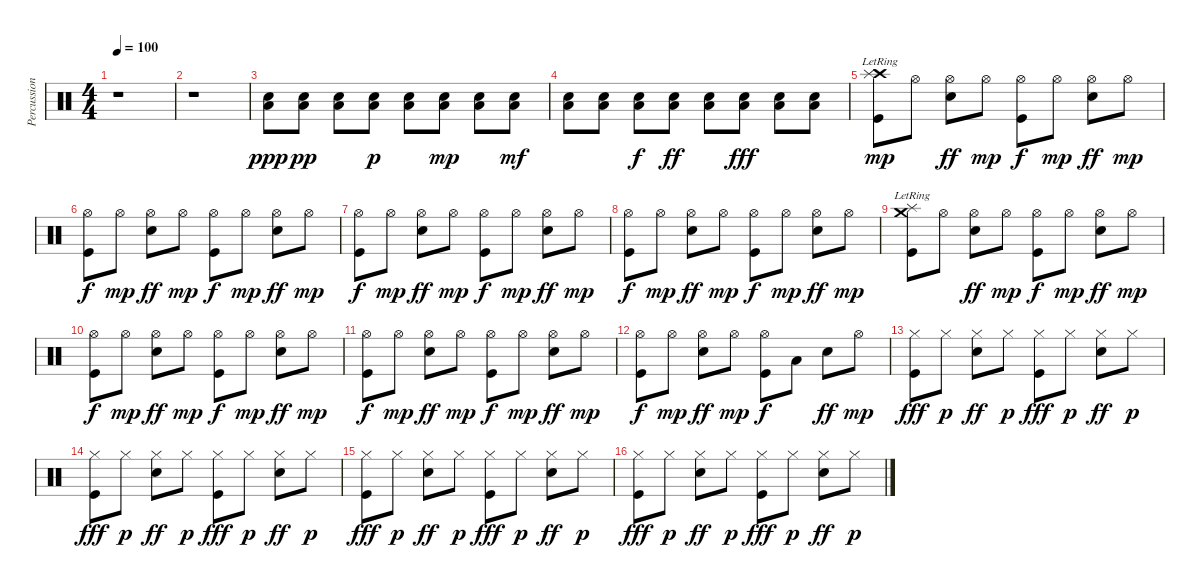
\track ("Percussion" "Percussion") {instrument percussion}
\staff {score}
\articulation defaults
\ts (4 4)
\tempo 100
\clef neutral
\ks c
r.1{dy ppp} |
r.1 |
("Low Floor Tom (hit)" "Electric Snare (hit)").8 ("Low Floor Tom (hit)" "Electric Snare (hit)").8{dy pp} ("Low Floor Tom (hit)" "Electric Snare (hit)").8 ("Low Floor Tom (hit)" "Electric Snare (hit)").8{dy p} ("Low Floor Tom (hit)" "Electric Snare (hit)").8 ("Low Floor Tom (hit)" "Electric Snare (hit)").8{dy mp} ("Low Floor Tom (hit)" "Electric Snare (hit)").8 ("Low Floor Tom (hit)" "Electric Snare (hit)").8{dy mf} |
("Low Floor Tom (hit)" "Electric Snare (hit)").8 ("Low Floor Tom (hit)" "Electric Snare (hit)").8 ("Low Floor Tom (hit)" "Electric Snare (hit)").8{dy f} ("Low Floor Tom (hit)" "Electric Snare (hit)").8{dy ff} ("Low Floor Tom (hit)" "Electric Snare (hit)").8 ("Low Floor Tom (hit)" "Electric Snare (hit)").8{dy fff} ("Low Floor Tom (hit)" "Electric Snare (hit)").8 ("Low Floor Tom (hit)" "Electric Snare (hit)").8 |
("Crash high (hit)"{lr} "Splash (hit)"{lr} "Kick (hit)").8{dy mp} "Hi-Hat (open)".8 ("Hi-Hat (open)" "Electric Snare (hit)").8{dy ff} "Hi-Hat (open)".8{dy mp} ("Hi-Hat (open)" "Kick (hit)").8{dy f} "Hi-Hat (open)".8{dy mp} ("Hi-Hat (open)" "Electric Snare (hit)").8{dy ff} "Hi-Hat (open)".8{dy mp} |
("Hi-Hat (open)" "Kick (hit)").8{dy f} "Hi-Hat (open)".8{dy mp} ("Hi-Hat (open)" "Electric Snare (hit)").8{dy ff} "Hi-Hat (open)".8{dy mp} ("Hi-Hat (open)" "Kick (hit)").8{dy f} "Hi-Hat (open)".8{dy mp} ("Hi-Hat (open)" "Electric Snare (hit)").8{dy ff} "Hi-Hat (open)".8{dy mp} |
("Hi-Hat (open)" "Kick (hit)").8{dy f} "Hi-Hat (open)".8{dy mp} ("Hi-Hat (open)" "Electric Snare (hit)").8{dy ff} "Hi-Hat (open)".8{dy mp} ("Hi-Hat (open)" "Kick (hit)").8{dy f} "Hi-Hat (open)".8{dy mp} ("Hi-Hat (open)" "Electric Snare (hit)").8{dy ff} "Hi-Hat (open)".8{dy mp} |
("Hi-Hat (open)" "Kick (hit)").8{dy f} "Hi-Hat (open)".8{dy mp} ("Hi-Hat (open)" "Electric Snare (hit)").8{dy ff} "Hi-Hat (open)".8{dy mp} ("Hi-Hat (open)" "Kick (hit)").8{dy f} "Hi-Hat (open)".8{dy mp} ("Hi-Hat (open)" "Electric Snare (hit)").8{dy ff} "Hi-Hat (open)".8{dy mp} |
("Crash medium (hit)"{lr} "Splash (hit)"{lr} "Kick (hit)").8 "Hi-Hat (open)".8 ("Hi-Hat (open)" "Electric Snare (hit)").8{dy ff} "Hi-Hat (open)".8{dy mp} ("Hi-Hat (open)" "Kick (hit)").8{dy f} "Hi-Hat (open)".8{dy mp} ("Hi-Hat (open)" "Electric Snare (hit)").8{dy ff} "Hi-Hat (open)".8{dy mp} |
("Hi-Hat (open)" "Kick (hit)").8{dy f} "Hi-Hat (open)".8{dy mp} ("Hi-Hat (open)" "Electric Snare (hit)").8{dy ff} "Hi-Hat (open)".8{dy mp} ("Hi-Hat (open)" "Kick (hit)").8{dy f} "Hi-Hat (open)".8{dy mp} ("Hi-Hat (open)" "Electric Snare (hit)").8{dy ff} "Hi-Hat (open)".8{dy mp} |
("Hi-Hat (open)" "Kick (hit)").8{dy f} "Hi-Hat (open)".8{dy mp} ("Hi-Hat (open)" "Electric Snare (hit)").8{dy ff} "Hi-Hat (open)".8{dy mp} ("Hi-Hat (open)" "Kick (hit)").8{dy f} "Hi-Hat (open)".8{dy mp} ("Hi-Hat (open)" "Electric Snare (hit)").8{dy ff} "Hi-Hat (open)".8{dy mp} |
("Hi-Hat (open)" "Kick (hit)").8{dy f} "Hi-Hat (open)".8{dy mp} ("Hi-Hat (open)" "Electric Snare (hit)").8{dy ff} "Hi-Hat (open)".8{dy mp} ("Hi-Hat (open)" "Kick (hit)").8{dy f} "Low Tom (hit)".8 "Electric Snare (hit)".8{dy ff} "Hi-Hat (open)".8{dy mp} |
("Hi-Hat (closed)" "Kick (hit)").8{dy fff} "Hi-Hat (closed)".8{dy p} ("Hi-Hat (closed)" "Electric Snare (hit)").8{dy ff} "Hi-Hat (closed)".8{dy p} ("Hi-Hat (closed)" "Kick (hit)").8{dy fff} "Hi-Hat (closed)".8{dy p} ("Hi-Hat (closed)" "Electric Snare (hit)").8{dy ff} "Hi-Hat (closed)".8{dy p} |
("Hi-Hat (closed)" "Kick (hit)").8{dy fff} "Hi-Hat (closed)".8{dy p} ("Hi-Hat (closed)" "Electric Snare (hit)").8{dy ff} "Hi-Hat (closed)".8{dy p} ("Hi-Hat (closed)" "Kick (hit)").8{dy fff} "Hi-Hat (closed)".8{dy p} ("Hi-Hat (closed)" "Electric Snare (hit)").8{dy ff} "Hi-Hat (closed)".8{dy p} |
("Hi-Hat (closed)" "Kick (hit)").8{dy fff} "Hi-Hat (closed)".8{dy p} ("Hi-Hat (closed)" "Electric Snare (hit)").8{dy ff} "Hi-Hat (closed)".8{dy p} ("Hi-Hat (closed)" "Kick (hit)").8{dy fff} "Hi-Hat (closed)".8{dy p} ("Hi-Hat (closed)" "Electric Snare (hit)").8{dy ff} "Hi-Hat (closed)".8{dy p} |
("Hi-Hat (closed)" "Kick (hit)").8{dy fff} "Hi-Hat (closed)".8{dy p} ("Hi-Hat (closed)" "Electric Snare (hit)").8{dy ff} "Hi-Hat (closed)".8{dy p} ("Hi-Hat (closed)" "Kick (hit)").8{dy fff} "Hi-Hat (closed)".8{dy p} ("Hi-Hat (closed)" "Electric Snare (hit)").8{dy ff} "Hi-Hat (closed)".8{dy p}
